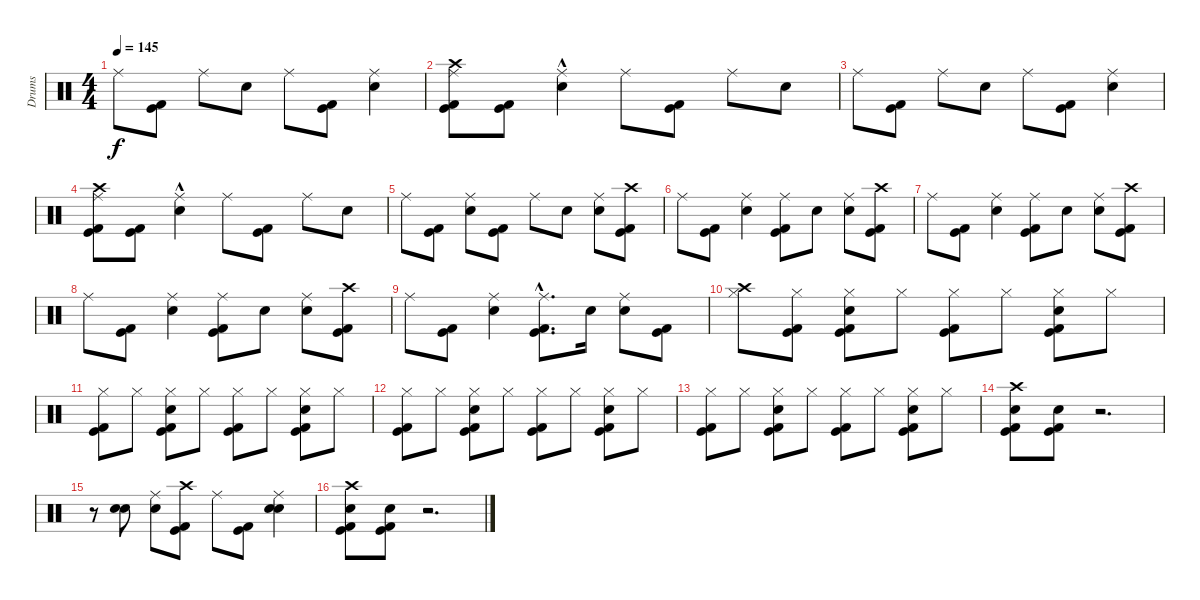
\track ("Drums" "Drums") {instrument percussion}
\staff {score}
\articulation defaults
\ts (4 4)
\tempo 145
\clef neutral
\ks c "Ride (middle)".8{dy f}
("Kick (hit) 2" "Kick (hit)").8 "Ride (middle)".8 "Electric Snare (hit)".8 "Ride (middle)".8 ("Kick (hit) 2" "Kick (hit)").8 ("Ride (middle)" "Electric Snare (hit)").4 |
("Ride (middle)" "Crash high (hit)" "Kick (hit) 2" "Kick (hit)").8 ("Kick (hit) 2" "Kick (hit)").8 ("Ride (middle)" "Electric Snare (hit)"{hac}).4 "Ride (middle)".8 ("Kick (hit) 2" "Kick (hit)").8 "Ride (middle)".8 "Electric Snare (hit)".8 |
"Ride (middle)".8 ("Kick (hit) 2" "Kick (hit)").8 "Ride (middle)".8 "Electric Snare (hit)".8 "Ride (middle)".8 ("Kick (hit) 2" "Kick (hit)").8 ("Ride (middle)" "Electric Snare (hit)").4 |
("Ride (middle)" "Crash high (hit)" "Kick (hit) 2" "Kick (hit)").8 ("Kick (hit) 2" "Kick (hit)").8 ("Ride (middle)" "Electric Snare (hit)"{hac}).4 "Ride (middle)".8 ("Kick (hit) 2" "Kick (hit)").8 "Ride (middle)".8 "Electric Snare (hit)".8 |
"Ride (middle)".8 ("Kick (hit) 2" "Kick (hit)").8 ("Ride (middle)" "Electric Snare (hit)").8 ("Kick (hit) 2" "Kick (hit)").8 "Ride (middle)".8 "Electric Snare (hit)".8 ("Electric Snare (hit)" "Ride (middle)").8 ("Kick (hit) 2" "Crash high (hit)" "Kick (hit)").8 |
"Ride (middle)".8 ("Kick (hit) 2" "Kick (hit)").8 ("Electric Snare (hit)" "Ride (middle)").4 ("Ride (middle)" "Kick (hit) 2" "Kick (hit)").8 "Electric Snare (hit)".8 ("Ride (middle)" "Electric Snare (hit)").8 ("Kick (hit) 2" "Crash high (hit)" "Kick (hit)").8 |
"Ride (middle)".8 ("Kick (hit) 2" "Kick (hit)").8 ("Ride (middle)" "Electric Snare (hit)").4 ("Kick (hit) 2" "Ride (middle)" "Kick (hit)").8 "Electric Snare (hit)".8 ("Ride (middle)" "Electric Snare (hit)").8 ("Kick (hit) 2" "Crash high (hit)" "Kick (hit)").8 |
"Ride (middle)".8 ("Kick (hit) 2" "Kick (hit)").8 ("Ride (middle)" "Electric Snare (hit)").4 ("Kick (hit) 2" "Ride (middle)" "Kick (hit)").8 "Electric Snare (hit)".8 ("Ride (middle)" "Electric Snare (hit)").8 ("Kick (hit) 2" "Crash high (hit)" "Kick (hit)").8 |
"Ride (middle)".8 ("Kick (hit) 2" "Kick (hit)").8 ("Electric Snare (hit)" "Ride (middle)").4 ("Kick (hit) 2"{hac} "Ride (middle)" "Kick (hit)"{hac}).8{d} "Electric Snare (hit)".16 ("Ride (middle)" "Electric Snare (hit)").8 ("Kick (hit) 2" "Kick (hit)").8 |
("Crash high (hit)" "Hi-Hat (closed)").8 ("Hi-Hat (closed)" "Kick (hit) 2" "Kick (hit)").8 ("Electric Snare (hit)" "Hi-Hat (closed)" "Kick (hit) 2" "Kick (hit)").8 "Hi-Hat (closed)".8 ("Kick (hit) 2" "Hi-Hat (closed)" "Kick (hit)").8 "Hi-Hat (closed)".8 ("Hi-Hat (closed)" "Electric Snare (hit)" "Kick (hit) 2" "Kick (hit)").8 "Hi-Hat (closed)".8 |
("Kick (hit) 2" "Hi-Hat (closed)" "Kick (hit)").8 "Hi-Hat (closed)".8 ("Electric Snare (hit)" "Hi-Hat (closed)" "Kick (hit) 2" "Kick (hit)").8 "Hi-Hat (closed)".8 ("Kick (hit) 2" "Hi-Hat (closed)" "Kick (hit)").8 "Hi-Hat (closed)".8 ("Electric Snare (hit)" "Hi-Hat (closed)" "Kick (hit) 2" "Kick (hit)").8 "Hi-Hat (closed)".8 |
("Hi-Hat (closed)" "Kick (hit) 2" "Kick (hit)").8 "Hi-Hat (closed)".8 ("Hi-Hat (closed)" "Electric Snare (hit)" "Kick (hit) 2" "Kick (hit)").8 "Hi-Hat (closed)".8 ("Hi-Hat (closed)" "Kick (hit) 2" "Kick (hit)").8 "Hi-Hat (closed)".8 ("Hi-Hat (closed)" "Electric Snare (hit)" "Kick (hit) 2" "Kick (hit)").8 "Hi-Hat (closed)".8 |
("Hi-Hat (closed)" "Kick (hit) 2" "Kick (hit)").8 "Hi-Hat (closed)".8 ("Hi-Hat (closed)" "Electric Snare (hit)" "Kick (hit) 2" "Kick (hit)").8 "Hi-Hat (closed)".8 ("Hi-Hat (closed)" "Kick (hit) 2" "Kick (hit)").8 "Hi-Hat (closed)".8 ("Hi-Hat (closed)" "Electric Snare (hit)" "Kick (hit) 2" "Kick (hit)").8 "Hi-Hat (closed)".8 |
("Crash high (hit)" "Electric Snare (hit)" "Kick (hit) 2" "Kick (hit)").8 ("Electric Snare (hit)" "Kick (hit) 2" "Kick (hit)").8 r.2{d} |
r.8 ("Electric Snare (hit)" "Electric Snare (hit)").8 ("Ride (middle)" "Electric Snare (hit)").8 ("Kick (hit) 2" "Crash high (hit)" "Kick (hit)").8 "Ride (middle)".8 ("Kick (hit) 2" "Kick (hit)").8 ("Ride (middle)" "Electric Snare (hit)" "Electric Snare (hit)").4 |
("Crash high (hit)" "Electric Snare (hit)" "Kick (hit) 2" "Kick (hit)").8 ("Electric Snare (hit)" "Kick (hit) 2" "Kick (hit)").8 r.2{d}
